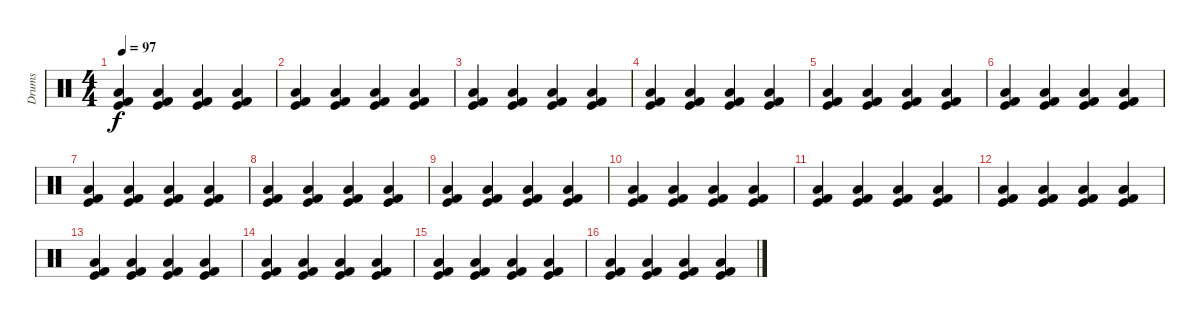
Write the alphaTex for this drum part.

\track ("Drums" "Drums") {instrument percussion}
\staff {score}
\articulation defaults
\ts (4 4)
\tempo 97
\clef neutral
\ks c
("Low Tom (hit)" "Kick (hit) 2" "Kick (hit)").4{dy f} ("Low Tom (hit)" "Kick (hit) 2" "Kick (hit)").4 ("Low Tom (hit)" "Kick (hit) 2" "Kick (hit)").4 ("Low Tom (hit)" "Kick (hit) 2" "Kick (hit)").4 |
("Low Tom (hit)" "Kick (hit) 2" "Kick (hit)").4 ("Low Tom (hit)" "Kick (hit) 2" "Kick (hit)").4 ("Low Tom (hit)" "Kick (hit) 2" "Kick (hit)").4 ("Low Tom (hit)" "Kick (hit) 2" "Kick (hit)").4 |
("Low Tom (hit)" "Kick (hit) 2" "Kick (hit)").4 ("Low Tom (hit)" "Kick (hit) 2" "Kick (hit)").4 ("Low Tom (hit)" "Kick (hit) 2" "Kick (hit)").4 ("Low Tom (hit)" "Kick (hit) 2" "Kick (hit)").4 |
("Low Tom (hit)" "Kick (hit) 2" "Kick (hit)").4 ("Low Tom (hit)" "Kick (hit) 2" "Kick (hit)").4 ("Low Tom (hit)" "Kick (hit) 2" "Kick (hit)").4 ("Low Tom (hit)" "Kick (hit) 2" "Kick (hit)").4 |
("Low Tom (hit)" "Kick (hit) 2" "Kick (hit)").4 ("Low Tom (hit)" "Kick (hit) 2" "Kick (hit)").4 ("Low Tom (hit)" "Kick (hit) 2" "Kick (hit)").4 ("Low Tom (hit)" "Kick (hit) 2" "Kick (hit)").4 |
("Low Tom (hit)" "Kick (hit) 2" "Kick (hit)").4 ("Low Tom (hit)" "Kick (hit) 2" "Kick (hit)").4 ("Low Tom (hit)" "Kick (hit) 2" "Kick (hit)").4 ("Low Tom (hit)" "Kick (hit) 2" "Kick (hit)").4 |
("Low Tom (hit)" "Kick (hit) 2" "Kick (hit)").4 ("Low Tom (hit)" "Kick (hit) 2" "Kick (hit)").4 ("Low Tom (hit)" "Kick (hit) 2" "Kick (hit)").4 ("Low Tom (hit)" "Kick (hit) 2" "Kick (hit)").4 |
("Low Tom (hit)" "Kick (hit) 2" "Kick (hit)").4 ("Low Tom (hit)" "Kick (hit) 2" "Kick (hit)").4 ("Low Tom (hit)" "Kick (hit) 2" "Kick (hit)").4 ("Low Tom (hit)" "Kick (hit) 2" "Kick (hit)").4 |
("Low Tom (hit)" "Kick (hit) 2" "Kick (hit)").4 ("Low Tom (hit)" "Kick (hit) 2" "Kick (hit)").4 ("Low Tom (hit)" "Kick (hit) 2" "Kick (hit)").4 ("Low Tom (hit)" "Kick (hit) 2" "Kick (hit)").4 |
("Low Tom (hit)" "Kick (hit) 2" "Kick (hit)").4 ("Low Tom (hit)" "Kick (hit) 2" "Kick (hit)").4 ("Low Tom (hit)" "Kick (hit) 2" "Kick (hit)").4 ("Low Tom (hit)" "Kick (hit) 2" "Kick (hit)").4 |
("Low Tom (hit)" "Kick (hit) 2" "Kick (hit)").4 ("Low Tom (hit)" "Kick (hit) 2" "Kick (hit)").4 ("Low Tom (hit)" "Kick (hit) 2" "Kick (hit)").4 ("Low Tom (hit)" "Kick (hit) 2" "Kick (hit)").4 |
("Low Tom (hit)" "Kick (hit) 2" "Kick (hit)").4 ("Low Tom (hit)" "Kick (hit) 2" "Kick (hit)").4 ("Low Tom (hit)" "Kick (hit) 2" "Kick (hit)").4 ("Low Tom (hit)" "Kick (hit) 2" "Kick (hit)").4 |
("Low Tom (hit)" "Kick (hit) 2" "Kick (hit)").4 ("Low Tom (hit)" "Kick (hit) 2" "Kick (hit)").4 ("Low Tom (hit)" "Kick (hit) 2" "Kick (hit)").4 ("Low Tom (hit)" "Kick (hit) 2" "Kick (hit)").4 |
("Low Tom (hit)" "Kick (hit) 2" "Kick (hit)").4 ("Low Tom (hit)" "Kick (hit) 2" "Kick (hit)").4 ("Low Tom (hit)" "Kick (hit) 2" "Kick (hit)").4 ("Low Tom (hit)" "Kick (hit) 2" "Kick (hit)").4 |
("Low Tom (hit)" "Kick (hit) 2" "Kick (hit)").4 ("Low Tom (hit)" "Kick (hit) 2" "Kick (hit)").4 ("Low Tom (hit)" "Kick (hit) 2" "Kick (hit)").4 ("Low Tom (hit)" "Kick (hit) 2" "Kick (hit)").4 |
("Low Tom (hit)" "Kick (hit) 2" "Kick (hit)").4 ("Low Tom (hit)" "Kick (hit) 2" "Kick (hit)").4 ("Low Tom (hit)" "Kick (hit) 2" "Kick (hit)").4 ("Low Tom (hit)" "Kick (hit) 2" "Kick (hit)").4
